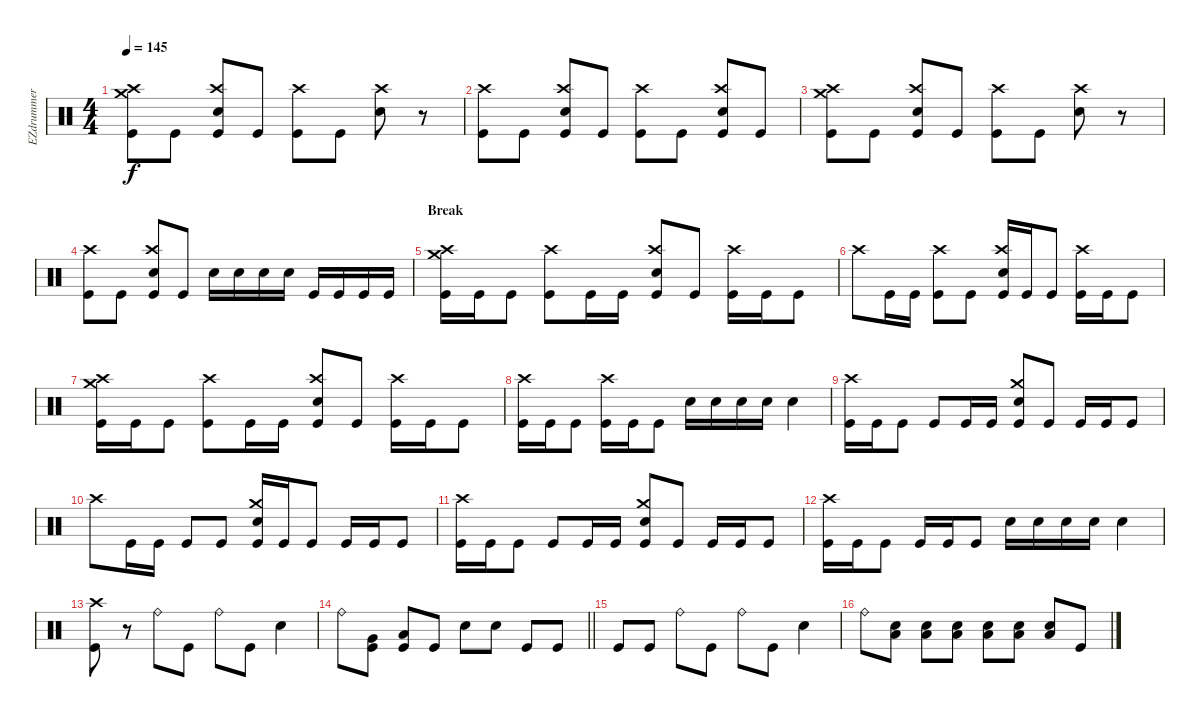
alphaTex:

\track ("EZdrummer 01" "EZdrummer ") {instrument percussion}
\staff {score}
\articulation defaults
\ts (4 4)
\tempo 145
\clef neutral
\ks c
("Kick (hit)" "Crash high (hit)" "Crash medium (hit)").8{dy f} "Kick (hit)".8 ("Kick (hit)" "Snare (hit) 2" "Crash high (hit)").8 "Kick (hit)".8 ("Crash high (hit)" "Kick (hit)").8 "Kick (hit)".8 ("Snare (hit) 2" "Crash high (hit)").8 r.8 |
("Kick (hit)" "Crash high (hit)").8 "Kick (hit)".8 ("Kick (hit)" "Snare (hit) 2" "Crash high (hit)").8 "Kick (hit)".8 ("Kick (hit)" "Crash high (hit)").8 "Kick (hit)".8 ("Kick (hit)" "Snare (hit) 2" "Crash high (hit)").8 "Kick (hit)".8 |
("Kick (hit)" "Crash high (hit)" "Crash medium (hit)").8 "Kick (hit)".8 ("Kick (hit)" "Snare (hit) 2" "Crash high (hit)").8 "Kick (hit)".8 ("Crash high (hit)" "Kick (hit)").8 "Kick (hit)".8 ("Snare (hit) 2" "Crash high (hit)").8 r.8 |
("Kick (hit)" "Crash high (hit)").8 "Kick (hit)".8 ("Kick (hit)" "Snare (hit) 2" "Crash high (hit)").8 "Kick (hit)".8 "Snare (hit) 2".16 "Snare (hit) 2".16 "Snare (hit) 2".16 "Snare (hit) 2".16 "Kick (hit)".16 "Kick (hit)".16 "Kick (hit)".16 "Kick (hit)".16 |
\section ("" "Break")
("Kick (hit)" "Crash high (hit)" "Crash medium (hit)").16 "Kick (hit)".16 "Kick (hit)".8 ("Kick (hit)" "Crash high (hit)").8 "Kick (hit)".16 "Kick (hit)".16 ("Kick (hit)" "Snare (hit) 2" "Crash high (hit)").8 "Kick (hit)".8 ("Kick (hit)" "Crash high (hit)").16 "Kick (hit)".16 "Kick (hit)".8 |
"Crash high (hit)".8 "Kick (hit)".16 "Kick (hit)".16 ("Kick (hit)" "Crash high (hit)").8 "Kick (hit)".8 ("Kick (hit)" "Snare (hit) 2" "Crash high (hit)").16 "Kick (hit)".16 "Kick (hit)".8 ("Kick (hit)" "Crash high (hit)").16 "Kick (hit)".16 "Kick (hit)".8 |
("Kick (hit)" "Crash high (hit)" "Crash medium (hit)").16 "Kick (hit)".16 "Kick (hit)".8 ("Kick (hit)" "Crash high (hit)").8 "Kick (hit)".16 "Kick (hit)".16 ("Kick (hit)" "Snare (hit) 2" "Crash high (hit)").8 "Kick (hit)".8 ("Kick (hit)" "Crash high (hit)").16 "Kick (hit)".16 "Kick (hit)".8 |
("Kick (hit)" "Crash high (hit)").16 "Kick (hit)".16 "Kick (hit)".8 ("Kick (hit)" "Crash high (hit)").16 "Kick (hit)".16 "Kick (hit)".8 "Snare (hit) 2".16 "Snare (hit) 2".16 "Snare (hit) 2".16 "Snare (hit) 2".16 "Snare (hit) 2".4 |
("Kick (hit)" "Crash high (hit)").16 "Kick (hit)".16 "Kick (hit)".8 "Kick (hit)".8 "Kick (hit)".16 "Kick (hit)".16 ("Kick (hit)" "Snare (hit) 2" "Crash medium (hit)").8 "Kick (hit)".8 "Kick (hit)".16 "Kick (hit)".16 "Kick (hit)".8 |
"Crash high (hit)".8 "Kick (hit)".16 "Kick (hit)".16 "Kick (hit)".8 "Kick (hit)".8 ("Kick (hit)" "Snare (hit) 2" "Crash medium (hit)").16 "Kick (hit)".16 "Kick (hit)".8 "Kick (hit)".16 "Kick (hit)".16 "Kick (hit)".8 |
("Kick (hit)" "Crash high (hit)").16 "Kick (hit)".16 "Kick (hit)".8 "Kick (hit)".8 "Kick (hit)".16 "Kick (hit)".16 ("Kick (hit)" "Snare (hit) 2" "Crash medium (hit)").8 "Kick (hit)".8 "Kick (hit)".16 "Kick (hit)".16 "Kick (hit)".8 |
("Kick (hit)" "Crash high (hit)").16 "Kick (hit)".16 "Kick (hit)".8 "Kick (hit)".16 "Kick (hit)".16 "Kick (hit)".8 "Snare (hit) 2".16 "Snare (hit) 2".16 "Snare (hit) 2".16 "Snare (hit) 2".16 "Snare (hit) 2".4 |
("Kick (hit)" "Crash high (hit)").8 r.8 "Ride (bell)".8 "Kick (hit)".8 "Ride (bell)".8 "Kick (hit)".8 "Snare (hit) 2".4 |
\barLineRight lightlight "Ride (bell)".8
("Kick (hit)" "Very Low Tom (hit)").8 ("Kick (hit)" "Low Floor Tom (hit)").8 "Kick (hit)".8 "Snare (hit) 2".8 "Snare (hit) 2".8 "Kick (hit)".8 "Kick (hit)".8 |
"Kick (hit)".8 "Kick (hit)".8 "Ride (bell)".8 "Kick (hit)".8 "Ride (bell)".8 "Kick (hit)".8 "Snare (hit) 2".4 |
"Ride (bell)".8 ("Snare (hit) 2" "Low Floor Tom (hit)").8 ("Snare (hit) 2" "Low Floor Tom (hit)").8 ("Snare (hit) 2" "Low Floor Tom (hit)").8 ("Snare (hit) 2" "Low Floor Tom (hit)").8 ("Snare (hit) 2" "Low Floor Tom (hit)").8 ("Snare (hit) 2" "Low Floor Tom (hit)").8 "Kick (hit)".8
